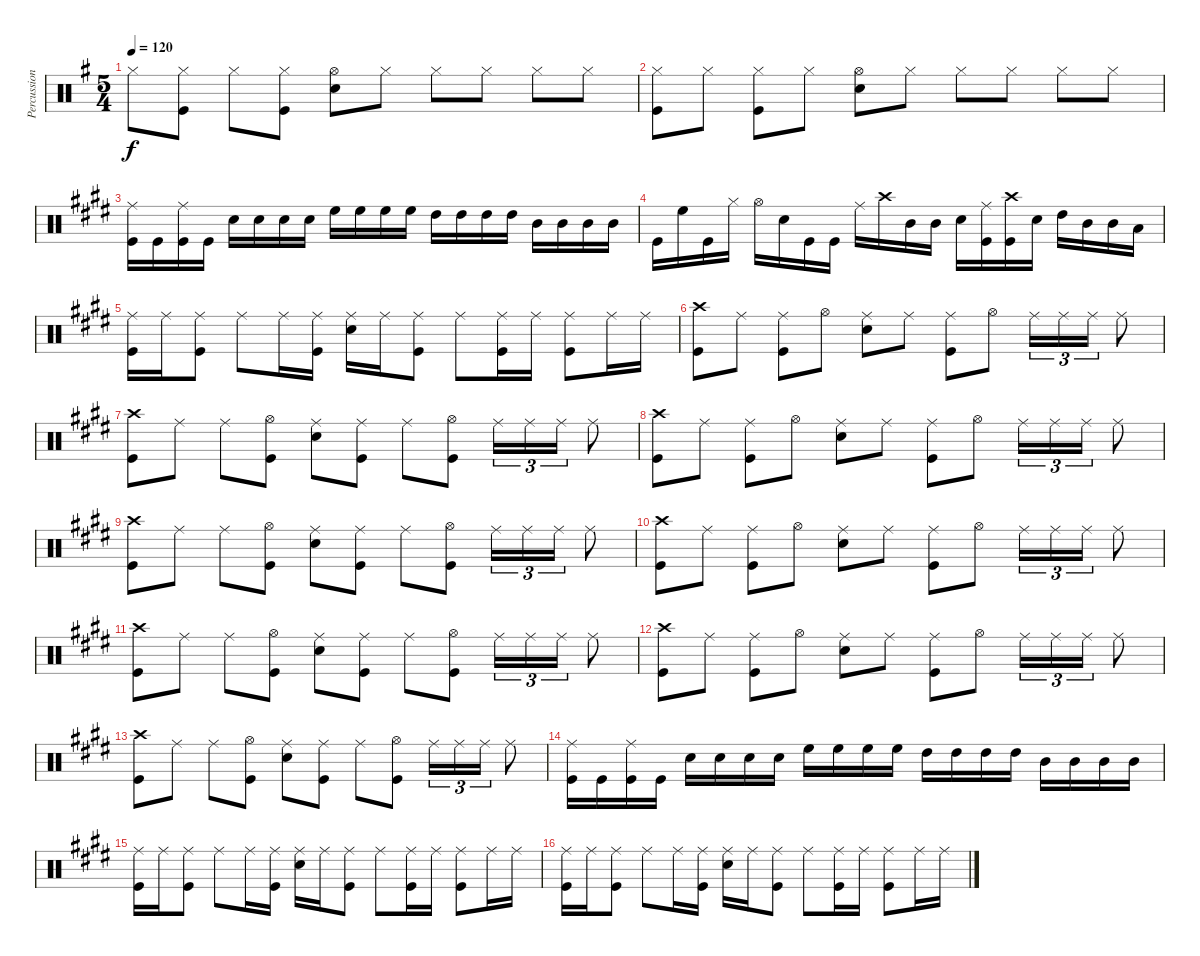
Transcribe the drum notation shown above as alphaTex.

\track ("Percussion" "Percussion") {instrument percussion}
\staff {score}
\articulation defaults
\ts (5 4)
\tempo 120
\clef neutral
\ks g "Hi-Hat (closed)".8{dy f}
("Hi-Hat (closed)" "Kick (hit)").8 "Hi-Hat (closed)".8 ("Hi-Hat (closed)" "Kick (hit)").8 ("Hi-Hat (open)" "Snare (hit) 2").8 "Hi-Hat (closed)".8 "Hi-Hat (closed)".8 "Hi-Hat (closed)".8 "Hi-Hat (closed)".8 "Hi-Hat (closed)".8 |
("Hi-Hat (closed)" "Kick (hit)").8 "Hi-Hat (closed)".8 ("Hi-Hat (closed)" "Kick (hit)").8 "Hi-Hat (closed)".8 ("Hi-Hat (open)" "Snare (hit) 2").8 "Hi-Hat (closed)".8 "Hi-Hat (closed)".8 "Hi-Hat (closed)".8 "Hi-Hat (closed)".8 "Hi-Hat (closed)".8 |
\ks e
("Ride (middle)" "Kick (hit)").16 "Kick (hit)".16 ("Ride (middle)" "Kick (hit)").16 "Kick (hit)".16 "Snare (hit) 2".16 "Snare (hit) 2".16 "Snare (hit) 2".16 "Snare (hit) 2".16 "High Floor Tom (hit)".16 "High Floor Tom (hit)".16 "High Floor Tom (hit)".16 "High Floor Tom (hit)".16 "High Tom (hit)".16 "High Tom (hit)".16 "High Tom (hit)".16 "High Tom (hit)".16 "Mid Tom (hit)".16 "Mid Tom (hit)".16 "Mid Tom (hit)".16 "Mid Tom (hit)".16 |
"Kick (hit)".16 "High Floor Tom (hit)".16 "Kick (hit)".16 "Hi-Hat (closed)".16 "Hi-Hat (open)".16 "Snare (hit) 2".16 "Kick (hit)".16 "Kick (hit)".16 "Ride (middle)".16 "Crash high (hit)".16 "Mid Tom (hit)".16 "Mid Tom (hit)".16 "Snare (hit) 2".16 ("Ride (middle)" "Kick (hit)").16 ("Crash high (hit)" "Kick (hit)").16 "Snare (hit) 2".16 "High Tom (hit)".16 "Mid Tom (hit)".16 "Mid Tom (hit)".16 "Low Tom (hit)".16 |
("Ride (middle)" "Kick (hit)").16 "Ride (middle)".16 ("Ride (middle)" "Kick (hit)").8 "Ride (middle)".8 "Ride (middle)".16 ("Ride (middle)" "Kick (hit)").16 ("Ride (middle)" "Snare (hit) 2").16 "Ride (middle)".16 ("Ride (middle)" "Kick (hit)").8 "Ride (middle)".8 ("Ride (middle)" "Kick (hit)").16 "Ride (middle)".16 ("Ride (middle)" "Kick (hit)").8 "Ride (middle)".16 "Ride (middle)".16 |
("Crash high (hit)" "Kick (hit)").8 "Ride (middle)".8 ("Ride (middle)" "Kick (hit)").8 "Hi-Hat (open)".8 ("Ride (middle)" "Snare (hit) 2").8 "Ride (middle)".8 ("Ride (middle)" "Kick (hit)").8 "Hi-Hat (open)".8 "Ride (middle)".16{tu (3 2)} "Ride (middle)".16{tu (3 2)} "Ride (middle)".16{tu (3 2)} "Ride (middle)".8 |
("Crash high (hit)" "Kick (hit)").8 "Ride (middle)".8 "Ride (middle)".8 ("Hi-Hat (open)" "Kick (hit)").8 ("Ride (middle)" "Snare (hit) 2").8 ("Ride (middle)" "Kick (hit)").8 "Ride (middle)".8 ("Hi-Hat (open)" "Kick (hit)").8 "Ride (middle)".16{tu (3 2)} "Ride (middle)".16{tu (3 2)} "Ride (middle)".16{tu (3 2)} "Ride (middle)".8 |
("Crash high (hit)" "Kick (hit)").8 "Ride (middle)".8 ("Ride (middle)" "Kick (hit)").8 "Hi-Hat (open)".8 ("Ride (middle)" "Snare (hit) 2").8 "Ride (middle)".8 ("Ride (middle)" "Kick (hit)").8 "Hi-Hat (open)".8 "Ride (middle)".16{tu (3 2)} "Ride (middle)".16{tu (3 2)} "Ride (middle)".16{tu (3 2)} "Ride (middle)".8 |
("Crash high (hit)" "Kick (hit)").8 "Ride (middle)".8 "Ride (middle)".8 ("Hi-Hat (open)" "Kick (hit)").8 ("Ride (middle)" "Snare (hit) 2").8 ("Ride (middle)" "Kick (hit)").8 "Ride (middle)".8 ("Hi-Hat (open)" "Kick (hit)").8 "Ride (middle)".16{tu (3 2)} "Ride (middle)".16{tu (3 2)} "Ride (middle)".16{tu (3 2)} "Ride (middle)".8 |
("Crash high (hit)" "Kick (hit)").8 "Ride (middle)".8 ("Ride (middle)" "Kick (hit)").8 "Hi-Hat (open)".8 ("Ride (middle)" "Snare (hit) 2").8 "Ride (middle)".8 ("Ride (middle)" "Kick (hit)").8 "Hi-Hat (open)".8 "Ride (middle)".16{tu (3 2)} "Ride (middle)".16{tu (3 2)} "Ride (middle)".16{tu (3 2)} "Ride (middle)".8 |
("Crash high (hit)" "Kick (hit)").8 "Ride (middle)".8 "Ride (middle)".8 ("Hi-Hat (open)" "Kick (hit)").8 ("Ride (middle)" "Snare (hit) 2").8 ("Ride (middle)" "Kick (hit)").8 "Ride (middle)".8 ("Hi-Hat (open)" "Kick (hit)").8 "Ride (middle)".16{tu (3 2)} "Ride (middle)".16{tu (3 2)} "Ride (middle)".16{tu (3 2)} "Ride (middle)".8 |
("Crash high (hit)" "Kick (hit)").8 "Ride (middle)".8 ("Ride (middle)" "Kick (hit)").8 "Hi-Hat (open)".8 ("Ride (middle)" "Snare (hit) 2").8 "Ride (middle)".8 ("Ride (middle)" "Kick (hit)").8 "Hi-Hat (open)".8 "Ride (middle)".16{tu (3 2)} "Ride (middle)".16{tu (3 2)} "Ride (middle)".16{tu (3 2)} "Ride (middle)".8 |
("Crash high (hit)" "Kick (hit)").8 "Ride (middle)".8 "Ride (middle)".8 ("Hi-Hat (open)" "Kick (hit)").8 ("Ride (middle)" "Snare (hit) 2").8 ("Ride (middle)" "Kick (hit)").8 "Ride (middle)".8 ("Hi-Hat (open)" "Kick (hit)").8 "Ride (middle)".16{tu (3 2)} "Ride (middle)".16{tu (3 2)} "Ride (middle)".16{tu (3 2)} "Ride (middle)".8 |
("Ride (middle)" "Kick (hit)").16 "Kick (hit)".16 ("Ride (middle)" "Kick (hit)").16 "Kick (hit)".16 "Snare (hit) 2".16 "Snare (hit) 2".16 "Snare (hit) 2".16 "Snare (hit) 2".16 "High Floor Tom (hit)".16 "High Floor Tom (hit)".16 "High Floor Tom (hit)".16 "High Floor Tom (hit)".16 "High Tom (hit)".16 "High Tom (hit)".16 "High Tom (hit)".16 "High Tom (hit)".16 "Mid Tom (hit)".16 "Mid Tom (hit)".16 "Mid Tom (hit)".16 "Mid Tom (hit)".16 |
("Ride (middle)" "Kick (hit)").16 "Ride (middle)".16 ("Ride (middle)" "Kick (hit)").8 "Ride (middle)".8 "Ride (middle)".16 ("Ride (middle)" "Kick (hit)").16 ("Ride (middle)" "Snare (hit) 2").16 "Ride (middle)".16 ("Ride (middle)" "Kick (hit)").8 "Ride (middle)".8 ("Ride (middle)" "Kick (hit)").16 "Ride (middle)".16 ("Ride (middle)" "Kick (hit)").8 "Ride (middle)".16 "Ride (middle)".16 |
("Ride (middle)" "Kick (hit)").16 "Ride (middle)".16 ("Ride (middle)" "Kick (hit)").8 "Ride (middle)".8 "Ride (middle)".16 ("Ride (middle)" "Kick (hit)").16 ("Ride (middle)" "Snare (hit) 2").16 "Ride (middle)".16 ("Ride (middle)" "Kick (hit)").8 "Ride (middle)".8 ("Ride (middle)" "Kick (hit)").16 "Ride (middle)".16 ("Ride (middle)" "Kick (hit)").8 "Ride (middle)".16 "Ride (middle)".16
